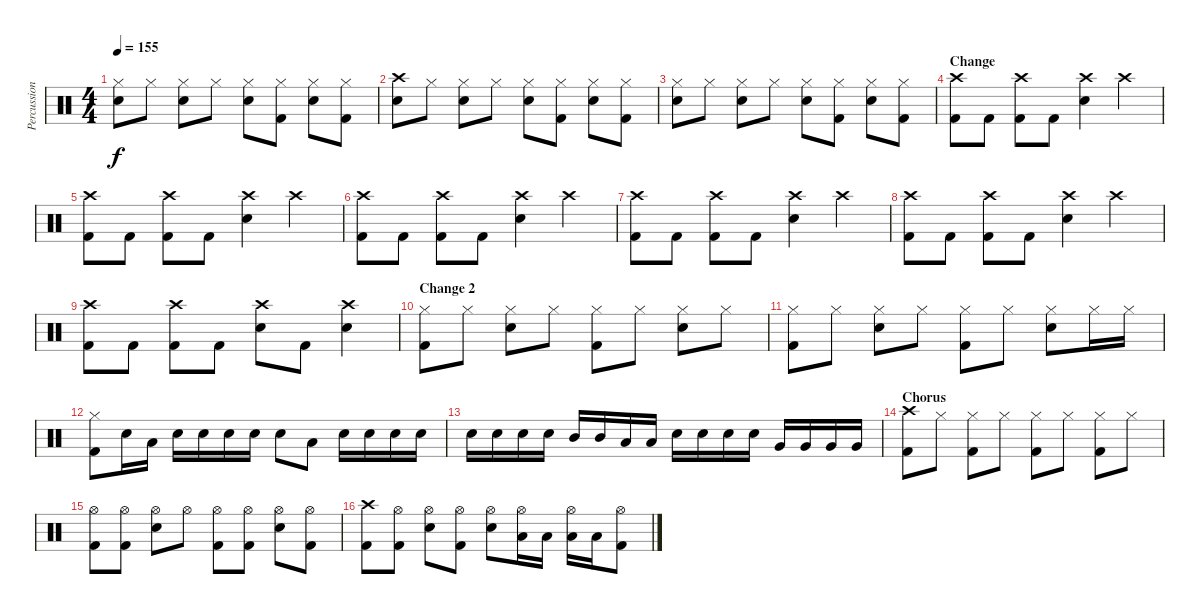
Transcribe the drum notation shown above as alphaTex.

\track ("Percussion" "Percussion") {instrument percussion}
\staff {score}
\articulation defaults
\ts (4 4)
\tempo 155
\clef neutral
\ks c
("Hi-Hat (closed)" "Snare (hit) 2").8{dy f} "Hi-Hat (closed)".8 ("Hi-Hat (closed)" "Snare (hit) 2").8 "Hi-Hat (closed)".8 ("Hi-Hat (closed)" "Snare (hit) 2").8 ("Hi-Hat (closed)" "Kick (hit) 2").8 ("Hi-Hat (closed)" "Snare (hit) 2").8 ("Hi-Hat (closed)" "Kick (hit) 2").8 |
("Crash high (hit)" "Snare (hit) 2").8 "Hi-Hat (closed)".8 ("Hi-Hat (closed)" "Snare (hit) 2").8 "Hi-Hat (closed)".8 ("Hi-Hat (closed)" "Snare (hit) 2").8 ("Hi-Hat (closed)" "Kick (hit) 2").8 ("Hi-Hat (closed)" "Snare (hit) 2").8 ("Hi-Hat (closed)" "Kick (hit) 2").8 |
("Hi-Hat (closed)" "Snare (hit) 2").8 "Hi-Hat (closed)".8 ("Hi-Hat (closed)" "Snare (hit) 2").8 "Hi-Hat (closed)".8 ("Hi-Hat (closed)" "Snare (hit) 2").8 ("Hi-Hat (closed)" "Kick (hit) 2").8 ("Hi-Hat (closed)" "Snare (hit) 2").8 ("Hi-Hat (closed)" "Kick (hit) 2").8 |
\section ("" "Change")
("Crash high (hit)" "Kick (hit) 2").8 "Kick (hit) 2".8 ("Crash high (hit)" "Kick (hit) 2").8 "Kick (hit) 2".8 ("Crash high (hit)" "Snare (hit) 2").4 "Crash high (hit)".4 |
("Crash high (hit)" "Kick (hit) 2").8 "Kick (hit) 2".8 ("Crash high (hit)" "Kick (hit) 2").8 "Kick (hit) 2".8 ("Crash high (hit)" "Snare (hit) 2").4 "Crash high (hit)".4 |
("Crash high (hit)" "Kick (hit) 2").8 "Kick (hit) 2".8 ("Crash high (hit)" "Kick (hit) 2").8 "Kick (hit) 2".8 ("Crash high (hit)" "Snare (hit) 2").4 "Crash high (hit)".4 |
("Crash high (hit)" "Kick (hit) 2").8 "Kick (hit) 2".8 ("Crash high (hit)" "Kick (hit) 2").8 "Kick (hit) 2".8 ("Crash high (hit)" "Snare (hit) 2").4 "Crash high (hit)".4 |
("Crash high (hit)" "Kick (hit) 2").8 "Kick (hit) 2".8 ("Crash high (hit)" "Kick (hit) 2").8 "Kick (hit) 2".8 ("Crash high (hit)" "Snare (hit) 2").4 "Crash high (hit)".4 |
("Crash high (hit)" "Kick (hit) 2").8 "Kick (hit) 2".8 ("Crash high (hit)" "Kick (hit) 2").8 "Kick (hit) 2".8 ("Crash high (hit)" "Snare (hit) 2").8 "Kick (hit) 2".8 ("Crash high (hit)" "Snare (hit) 2").4 |
\section ("" "Change 2")
("Hi-Hat (closed)" "Kick (hit) 2").8 "Hi-Hat (closed)".8 ("Hi-Hat (closed)" "Snare (hit) 2").8 "Hi-Hat (closed)".8 ("Hi-Hat (closed)" "Kick (hit) 2").8 "Hi-Hat (closed)".8 ("Hi-Hat (closed)" "Snare (hit) 2").8 "Hi-Hat (closed)".8 |
("Hi-Hat (closed)" "Kick (hit) 2").8 "Hi-Hat (closed)".8 ("Hi-Hat (closed)" "Snare (hit) 2").8 "Hi-Hat (closed)".8 ("Hi-Hat (closed)" "Kick (hit) 2").8 "Hi-Hat (closed)".8 ("Hi-Hat (closed)" "Snare (hit) 2").8 "Hi-Hat (closed)".16 "Hi-Hat (closed)".16 |
("Hi-Hat (closed)" "Kick (hit) 2").8 "Snare (hit) 2".16 "Low Tom (hit)".16 "Snare (hit) 2".16 "Snare (hit) 2".16 "Snare (hit) 2".16 "Snare (hit) 2".16 "Snare (hit) 2".8 "Low Tom (hit)".8 "Snare (hit) 2".16 "Snare (hit) 2".16 "Snare (hit) 2".16 "Snare (hit) 2".16 |
"Snare (hit) 2".16 "Snare (hit) 2".16 "Snare (hit) 2".16 "Snare (hit) 2".16 "Mid Tom (hit)".16 "Mid Tom (hit)".16 "Low Tom (hit)".16 "Low Tom (hit)".16 "Snare (hit) 2".16 "Snare (hit) 2".16 "Snare (hit) 2".16 "Snare (hit) 2".16 "Very Low Tom (hit)".16 "Very Low Tom (hit)".16 "Very Low Tom (hit)".16 "Very Low Tom (hit)".16 |
\section ("" "Chorus")
("Crash high (hit)" "Kick (hit) 2").8 "Hi-Hat (closed)".8 ("Hi-Hat (closed)" "Kick (hit) 2").8 "Hi-Hat (closed)".8 ("Hi-Hat (closed)" "Kick (hit) 2").8 "Hi-Hat (closed)".8 ("Hi-Hat (closed)" "Kick (hit) 2").8 "Hi-Hat (closed)".8 |
("Hi-Hat (open)" "Kick (hit) 2").8 ("Hi-Hat (open)" "Kick (hit) 2").8 ("Hi-Hat (open)" "Snare (hit) 2").8 "Hi-Hat (open)".8 ("Hi-Hat (open)" "Kick (hit) 2").8 ("Hi-Hat (open)" "Kick (hit) 2").8 ("Hi-Hat (open)" "Snare (hit) 2").8 ("Hi-Hat (open)" "Kick (hit) 2").8 |
("Crash high (hit)" "Kick (hit) 2").8 ("Hi-Hat (open)" "Kick (hit) 2").8 ("Hi-Hat (open)" "Snare (hit) 2").8 ("Hi-Hat (open)" "Kick (hit) 2").8 ("Hi-Hat (open)" "Snare (hit) 2").8 ("Hi-Hat (open)" "Low Tom (hit)").16 "Low Tom (hit)".16 ("Hi-Hat (open)" "Low Tom (hit)").16 "Low Tom (hit)".16 ("Hi-Hat (open)" "Kick (hit) 2").8
